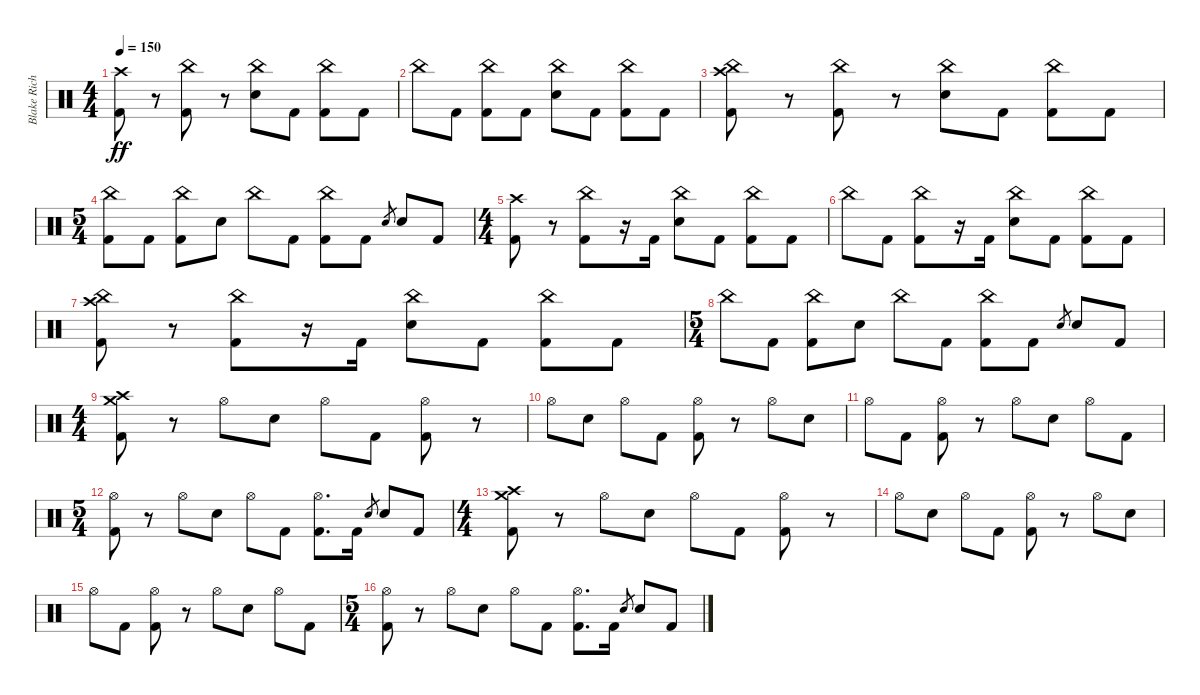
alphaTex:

\track ("Blake Richardson" "Blake Rich") {instrument percussion}
\staff {score}
\articulation defaults
\ts (4 4)
\tempo 150
\clef neutral
\ks c
("Crash high (hit)" "Kick (hit) 2").8{dy ff} r.8 ("China (hit)" "Kick (hit) 2").8 r.8 ("China (hit)" "Electric Snare (hit)").8 "Kick (hit) 2".8 ("China (hit)" "Kick (hit) 2").8 "Kick (hit) 2".8 |
"China (hit)".8 "Kick (hit) 2".8 ("China (hit)" "Kick (hit) 2").8 "Kick (hit) 2".8 ("China (hit)" "Electric Snare (hit)").8 "Kick (hit) 2".8 ("China (hit)" "Kick (hit) 2").8 "Kick (hit) 2".8 |
("China (hit)" "Crash high (hit)" "Kick (hit) 2").8 r.8 ("China (hit)" "Kick (hit) 2").8 r.8 ("China (hit)" "Electric Snare (hit)").8 "Kick (hit) 2".8 ("China (hit)" "Kick (hit) 2").8 "Kick (hit) 2".8 |
\ts (5 4)
("China (hit)" "Kick (hit) 2").8 "Kick (hit) 2".8 ("China (hit)" "Kick (hit) 2").8 "Electric Snare (hit)".8 "China (hit)".8 "Kick (hit) 2".8 ("China (hit)" "Kick (hit) 2").8 "Kick (hit) 2".8 "Electric Snare (hit)".8{gr} "Electric Snare (hit)".8 "Kick (hit) 2".8 |
\ts (4 4)
("Crash high (hit)" "Kick (hit) 2").8 r.8 ("China (hit)" "Kick (hit) 2").8 r.16 "Kick (hit) 2".16 ("China (hit)" "Electric Snare (hit)").8 "Kick (hit) 2".8 ("China (hit)" "Kick (hit) 2").8 "Kick (hit) 2".8 |
"China (hit)".8 "Kick (hit) 2".8 ("China (hit)" "Kick (hit) 2").8 r.16 "Kick (hit) 2".16 ("China (hit)" "Electric Snare (hit)").8 "Kick (hit) 2".8 ("China (hit)" "Kick (hit) 2").8 "Kick (hit) 2".8 |
("China (hit)" "Crash high (hit)" "Kick (hit) 2").8 r.8 ("China (hit)" "Kick (hit) 2").8 r.16 "Kick (hit) 2".16 ("China (hit)" "Electric Snare (hit)").8 "Kick (hit) 2".8 ("China (hit)" "Kick (hit) 2").8 "Kick (hit) 2".8 |
\ts (5 4)
"China (hit)".8 "Kick (hit) 2".8 ("China (hit)" "Kick (hit) 2").8 "Electric Snare (hit)".8 "China (hit)".8 "Kick (hit) 2".8 ("China (hit)" "Kick (hit) 2").8 "Kick (hit) 2".8 "Electric Snare (hit)".8{gr} "Electric Snare (hit)".8 "Kick (hit) 2".8 |
\ts (4 4)
("Crash high (hit)" "Crash medium (hit)" "Kick (hit) 2").8 r.8 "Hi-Hat (open)".8 "Electric Snare (hit)".8 "Hi-Hat (open)".8 "Kick (hit) 2".8 ("Hi-Hat (open)" "Kick (hit) 2").8 r.8 |
"Hi-Hat (open)".8 "Electric Snare (hit)".8 "Hi-Hat (open)".8 "Kick (hit) 2".8 ("Hi-Hat (open)" "Kick (hit) 2").8 r.8 "Hi-Hat (open)".8 "Electric Snare (hit)".8 |
"Hi-Hat (open)".8 "Kick (hit) 2".8 ("Hi-Hat (open)" "Kick (hit) 2").8 r.8 "Hi-Hat (open)".8 "Electric Snare (hit)".8 "Hi-Hat (open)".8 "Kick (hit) 2".8 |
\ts (5 4)
("Hi-Hat (open)" "Kick (hit) 2").8 r.8 "Hi-Hat (open)".8 "Electric Snare (hit)".8 "Hi-Hat (open)".8 "Kick (hit) 2".8 ("Hi-Hat (open)" "Kick (hit) 2").8{d} "Kick (hit) 2".16 "Electric Snare (hit)".8{gr} "Electric Snare (hit)".8 "Kick (hit) 2".8 |
\ts (4 4)
("Crash high (hit)" "Crash medium (hit)" "Kick (hit) 2").8 r.8 "Hi-Hat (open)".8 "Electric Snare (hit)".8 "Hi-Hat (open)".8 "Kick (hit) 2".8 ("Hi-Hat (open)" "Kick (hit) 2").8 r.8 |
"Hi-Hat (open)".8 "Electric Snare (hit)".8 "Hi-Hat (open)".8 "Kick (hit) 2".8 ("Hi-Hat (open)" "Kick (hit) 2").8 r.8 "Hi-Hat (open)".8 "Electric Snare (hit)".8 |
"Hi-Hat (open)".8 "Kick (hit) 2".8 ("Hi-Hat (open)" "Kick (hit) 2").8 r.8 "Hi-Hat (open)".8 "Electric Snare (hit)".8 "Hi-Hat (open)".8 "Kick (hit) 2".8 |
\ts (5 4)
("Hi-Hat (open)" "Kick (hit) 2").8 r.8 "Hi-Hat (open)".8 "Electric Snare (hit)".8 "Hi-Hat (open)".8 "Kick (hit) 2".8 ("Hi-Hat (open)" "Kick (hit) 2").8{d} "Kick (hit) 2".16 "Electric Snare (hit)".8{gr} "Electric Snare (hit)".8 "Kick (hit) 2".8
